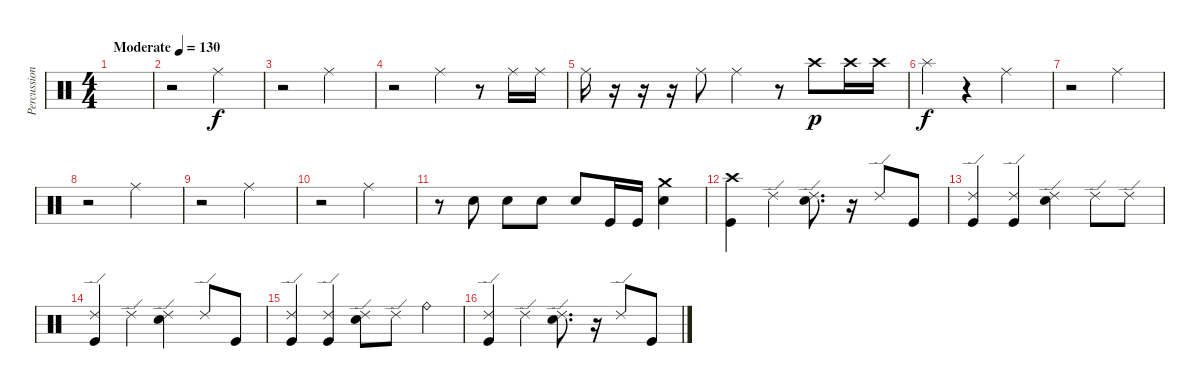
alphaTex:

\track ("Percussion" "Percussion") {instrument percussion}
\staff {score}
\articulation defaults
\ts (4 4)
\tempo (130 "Moderate")
\clef neutral
\ks c
|
r.2 "Ride (middle)".2 |
r.2 "Ride (middle)".2 |
r.2 "Ride (middle)".4 r.8 "Ride (middle)".16 "Ride (middle)".16 |
"Ride (middle)".16 r.16 r.16 r.16 "Ride (middle)".8 "Ride (middle)".4 r.8 "Crash high (hit)".8{dy p} "Crash high (hit)".16 "Crash high (hit)".16 |
"Splash (hit)".4{dy f} r.4 "Ride (middle)".2 |
r.2 "Ride (middle)".2 |
r.2 "Ride (middle)".2 |
r.2 "Ride (middle)".2 |
r.2 "Ride (middle)".2 |
r.8 "Electric Snare (hit)".8 "Electric Snare (hit)".8 "Electric Snare (hit)".8 "Electric Snare (hit)".8 "Kick (hit)".16 "Kick (hit)".16 ("Crash medium (hit)" "Electric Snare (hit)").4 |
("Crash high (hit)" "Kick (hit)").4 "Ride (edge) 2".4 ("Ride (edge) 2" "Electric Snare (hit)").8{d} r.16 "Ride (edge) 2".8 "Kick (hit)".8 |
("Ride (edge) 2" "Kick (hit)").4 ("Ride (edge) 2" "Kick (hit)").4 ("Ride (edge) 2" "Electric Snare (hit)").4 "Ride (edge) 2".8 "Ride (edge) 2".8 |
("Ride (edge) 2" "Kick (hit)").4 "Ride (edge) 2".4 ("Ride (edge) 2" "Electric Snare (hit)").4 "Ride (edge) 2".8 "Kick (hit)".8 |
("Ride (edge) 2" "Kick (hit)").4 ("Ride (edge) 2" "Kick (hit)").4 ("Ride (edge) 2" "Electric Snare (hit)").8 "Ride (edge) 2".8 "Ride (bell)".4 |
("Ride (edge) 2" "Kick (hit)").4 "Ride (edge) 2".4 ("Ride (edge) 2" "Electric Snare (hit)").8{d} r.16 "Ride (edge) 2".8 "Kick (hit)".8
